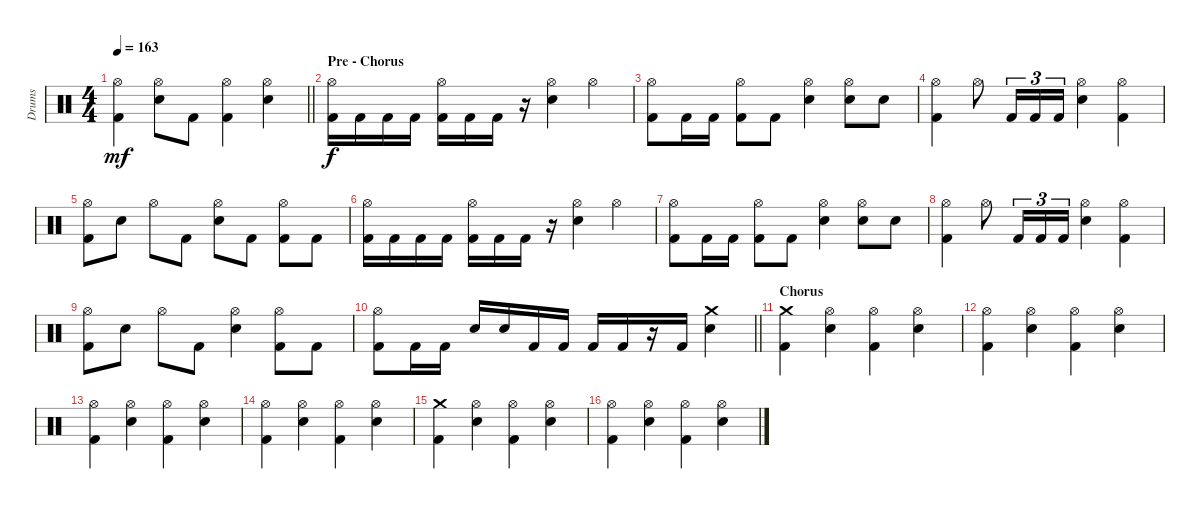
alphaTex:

\track ("Drums" "Drums") {instrument percussion}
\staff {score}
\articulation defaults
\ts (4 4)
\tempo 163
\clef neutral
\barLineRight lightlight
\ks c
("Hi-Hat (open)" "Kick (hit) 2").4{dy mf} ("Hi-Hat (open)" "Electric Snare (hit)").8 "Kick (hit) 2".8 ("Hi-Hat (open)" "Kick (hit) 2").4 ("Hi-Hat (open)" "Electric Snare (hit)").4 |
\section ("" "Pre - Chorus")
("Hi-Hat (open)" "Kick (hit) 2").16{dy f} "Kick (hit) 2".16 "Kick (hit) 2".16 "Kick (hit) 2".16 ("Hi-Hat (open)" "Kick (hit) 2").16 "Kick (hit) 2".16 "Kick (hit) 2".16 r.16 ("Hi-Hat (open)" "Electric Snare (hit)").4 "Hi-Hat (open)".4 |
("Hi-Hat (open)" "Kick (hit) 2").8 "Kick (hit) 2".16 "Kick (hit) 2".16 ("Hi-Hat (open)" "Kick (hit) 2").8 "Kick (hit) 2".8 ("Hi-Hat (open)" "Electric Snare (hit)").4 ("Hi-Hat (open)" "Electric Snare (hit)").8 "Electric Snare (hit)".8 |
("Hi-Hat (open)" "Kick (hit) 2").4 "Hi-Hat (open)".8 "Kick (hit) 2".16{tu (3 2)} "Kick (hit) 2".16{tu (3 2)} "Kick (hit) 2".16{tu (3 2)} ("Hi-Hat (open)" "Electric Snare (hit)").4 ("Hi-Hat (open)" "Kick (hit) 2").4 |
("Hi-Hat (open)" "Kick (hit) 2").8 "Electric Snare (hit)".8 "Hi-Hat (open)".8 "Kick (hit) 2".8 ("Hi-Hat (open)" "Electric Snare (hit)").8 "Kick (hit) 2".8 ("Hi-Hat (open)" "Kick (hit) 2").8 "Kick (hit) 2".8 |
("Hi-Hat (open)" "Kick (hit) 2").16 "Kick (hit) 2".16 "Kick (hit) 2".16 "Kick (hit) 2".16 ("Hi-Hat (open)" "Kick (hit) 2").16 "Kick (hit) 2".16 "Kick (hit) 2".16 r.16 ("Hi-Hat (open)" "Electric Snare (hit)").4 "Hi-Hat (open)".4 |
("Hi-Hat (open)" "Kick (hit) 2").8 "Kick (hit) 2".16 "Kick (hit) 2".16 ("Hi-Hat (open)" "Kick (hit) 2").8 "Kick (hit) 2".8 ("Hi-Hat (open)" "Electric Snare (hit)").4 ("Hi-Hat (open)" "Electric Snare (hit)").8 "Electric Snare (hit)".8 |
("Hi-Hat (open)" "Kick (hit) 2").4 "Hi-Hat (open)".8 "Kick (hit) 2".16{tu (3 2)} "Kick (hit) 2".16{tu (3 2)} "Kick (hit) 2".16{tu (3 2)} ("Hi-Hat (open)" "Electric Snare (hit)").4 ("Hi-Hat (open)" "Kick (hit) 2").4 |
("Hi-Hat (open)" "Kick (hit) 2").8 "Electric Snare (hit)".8 "Hi-Hat (open)".8 "Kick (hit) 2".8 ("Hi-Hat (open)" "Electric Snare (hit)").4 ("Hi-Hat (open)" "Kick (hit) 2").8 "Kick (hit) 2".8 |
\barLineRight lightlight
("Hi-Hat (open)" "Kick (hit) 2").8 "Kick (hit) 2".16 "Kick (hit) 2".16 "Electric Snare (hit)".16 "Electric Snare (hit)".16 "Kick (hit) 2".16 "Kick (hit) 2".16 "Kick (hit) 2".16 "Kick (hit) 2".16 r.16 "Kick (hit) 2".16 ("Crash medium (hit)" "Electric Snare (hit)").4 |
\section ("" "Chorus")
("Crash medium (hit)" "Kick (hit) 2").4 ("Hi-Hat (open)" "Electric Snare (hit)").4 ("Hi-Hat (open)" "Kick (hit) 2").4 ("Hi-Hat (open)" "Electric Snare (hit)").4 |
("Hi-Hat (open)" "Kick (hit) 2").4 ("Hi-Hat (open)" "Electric Snare (hit)").4 ("Hi-Hat (open)" "Kick (hit) 2").4 ("Hi-Hat (open)" "Electric Snare (hit)").4 |
("Hi-Hat (open)" "Kick (hit) 2").4 ("Hi-Hat (open)" "Electric Snare (hit)").4 ("Hi-Hat (open)" "Kick (hit) 2").4 ("Hi-Hat (open)" "Electric Snare (hit)").4 |
("Hi-Hat (open)" "Kick (hit) 2").4 ("Hi-Hat (open)" "Electric Snare (hit)").4 ("Hi-Hat (open)" "Kick (hit) 2").4 ("Hi-Hat (open)" "Electric Snare (hit)").4 |
("Crash medium (hit)" "Kick (hit) 2").4 ("Hi-Hat (open)" "Electric Snare (hit)").4 ("Hi-Hat (open)" "Kick (hit) 2").4 ("Hi-Hat (open)" "Electric Snare (hit)").4 |
("Hi-Hat (open)" "Kick (hit) 2").4 ("Hi-Hat (open)" "Electric Snare (hit)").4 ("Hi-Hat (open)" "Kick (hit) 2").4 ("Hi-Hat (open)" "Electric Snare (hit)").4
